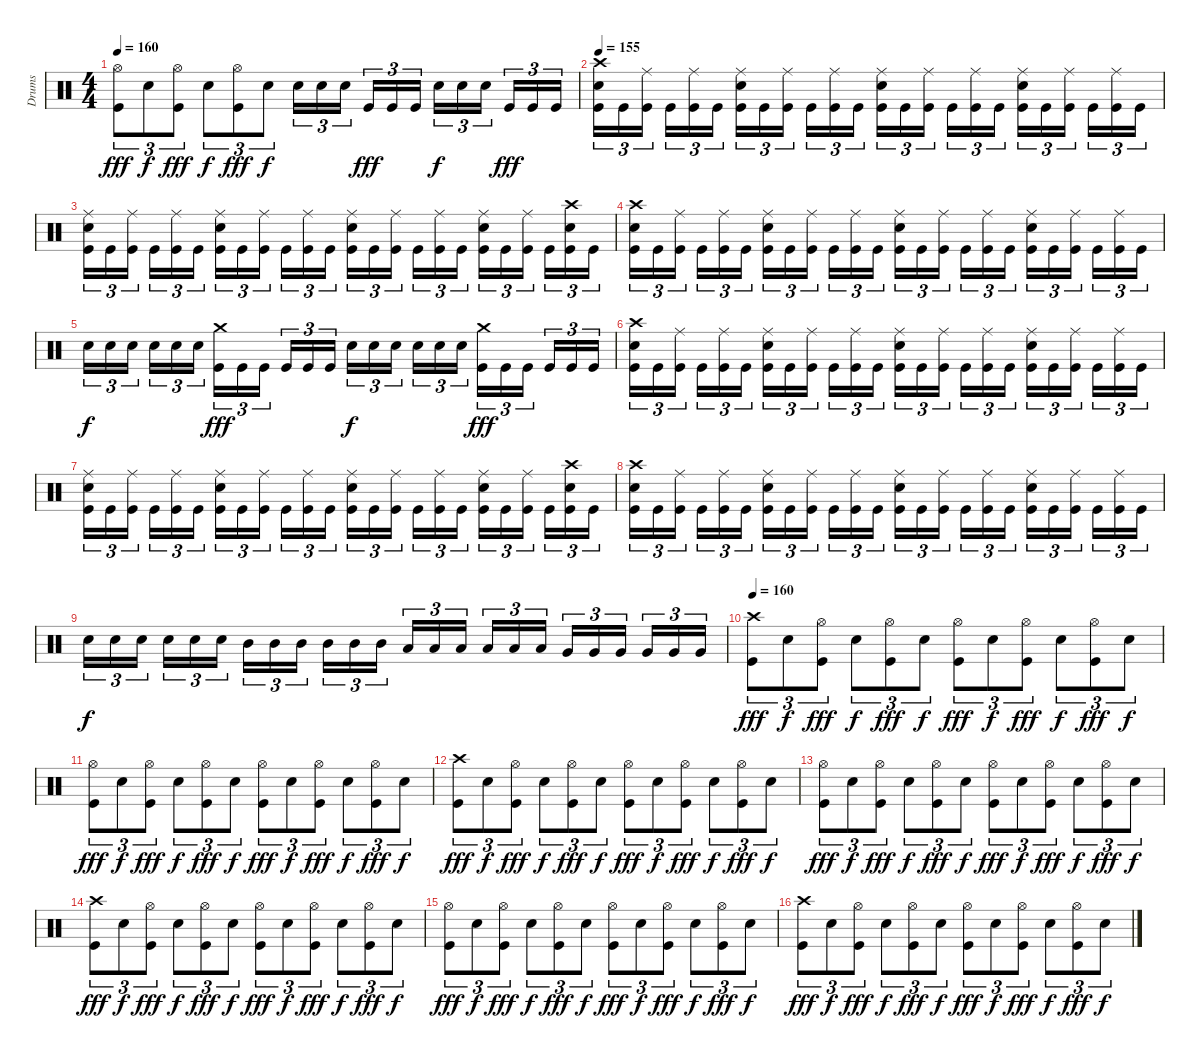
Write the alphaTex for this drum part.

\track ("Drums" "Drums") {instrument percussion}
\staff {score}
\articulation defaults
\ts (4 4)
\tempo 160
\clef neutral
\ks c
("Hi-Hat (open)" "Kick (hit)").8{tu (3 2) dy fff} "Electric Snare (hit)".8{tu (3 2) dy f} ("Hi-Hat (open)" "Kick (hit)").8{tu (3 2) dy fff} "Electric Snare (hit)".8{tu (3 2) dy f} ("Hi-Hat (open)" "Kick (hit)").8{tu (3 2) dy fff} "Electric Snare (hit)".8{tu (3 2) dy f} "Electric Snare (hit)".16{tu (3 2)} "Electric Snare (hit)".16{tu (3 2)} "Electric Snare (hit)".16{tu (3 2)} "Kick (hit)".16{tu (3 2) dy fff} "Kick (hit)".16{tu (3 2)} "Kick (hit)".16{tu (3 2)} "Electric Snare (hit)".16{tu (3 2) dy f} "Electric Snare (hit)".16{tu (3 2)} "Electric Snare (hit)".16{tu (3 2)} "Kick (hit)".16{tu (3 2) dy fff} "Kick (hit)".16{tu (3 2)} "Kick (hit)".16{tu (3 2)} |
\tempo 155
("Crash high (hit)" "Electric Snare (hit)" "Kick (hit)").16{tu (3 2)} "Kick (hit)".16{tu (3 2)} ("Ride (middle)" "Kick (hit)").16{tu (3 2)} "Kick (hit)".16{tu (3 2)} ("Ride (middle)" "Kick (hit)").16{tu (3 2)} "Kick (hit)".16{tu (3 2)} ("Ride (middle)" "Electric Snare (hit)" "Kick (hit)").16{tu (3 2)} "Kick (hit)".16{tu (3 2)} ("Ride (middle)" "Kick (hit)").16{tu (3 2)} "Kick (hit)".16{tu (3 2)} ("Ride (middle)" "Kick (hit)").16{tu (3 2)} "Kick (hit)".16{tu (3 2)} ("Ride (middle)" "Electric Snare (hit)" "Kick (hit)").16{tu (3 2)} "Kick (hit)".16{tu (3 2)} ("Ride (middle)" "Kick (hit)").16{tu (3 2)} "Kick (hit)".16{tu (3 2)} ("Ride (middle)" "Kick (hit)").16{tu (3 2)} "Kick (hit)".16{tu (3 2)} ("Ride (middle)" "Electric Snare (hit)" "Kick (hit)").16{tu (3 2)} "Kick (hit)".16{tu (3 2)} ("Ride (middle)" "Kick (hit)").16{tu (3 2)} "Kick (hit)".16{tu (3 2)} ("Ride (middle)" "Kick (hit)").16{tu (3 2)} "Kick (hit)".16{tu (3 2)} |
("Ride (middle)" "Electric Snare (hit)" "Kick (hit)").16{tu (3 2)} "Kick (hit)".16{tu (3 2)} ("Ride (middle)" "Kick (hit)").16{tu (3 2)} "Kick (hit)".16{tu (3 2)} ("Ride (middle)" "Kick (hit)").16{tu (3 2)} "Kick (hit)".16{tu (3 2)} ("Ride (middle)" "Electric Snare (hit)" "Kick (hit)").16{tu (3 2)} "Kick (hit)".16{tu (3 2)} ("Ride (middle)" "Kick (hit)").16{tu (3 2)} "Kick (hit)".16{tu (3 2)} ("Ride (middle)" "Kick (hit)").16{tu (3 2)} "Kick (hit)".16{tu (3 2)} ("Ride (middle)" "Electric Snare (hit)" "Kick (hit)").16{tu (3 2)} "Kick (hit)".16{tu (3 2)} ("Ride (middle)" "Kick (hit)").16{tu (3 2)} "Kick (hit)".16{tu (3 2)} ("Ride (middle)" "Kick (hit)").16{tu (3 2)} "Kick (hit)".16{tu (3 2)} ("Ride (middle)" "Electric Snare (hit)" "Kick (hit)").16{tu (3 2)} "Kick (hit)".16{tu (3 2)} ("Ride (middle)" "Kick (hit)").16{tu (3 2)} "Kick (hit)".16{tu (3 2)} ("Crash high (hit)" "Electric Snare (hit)" "Kick (hit)").16{tu (3 2)} "Kick (hit)".16{tu (3 2)} |
("Crash high (hit)" "Electric Snare (hit)" "Kick (hit)").16{tu (3 2)} "Kick (hit)".16{tu (3 2)} ("Ride (middle)" "Kick (hit)").16{tu (3 2)} "Kick (hit)".16{tu (3 2)} ("Ride (middle)" "Kick (hit)").16{tu (3 2)} "Kick (hit)".16{tu (3 2)} ("Ride (middle)" "Electric Snare (hit)" "Kick (hit)").16{tu (3 2)} "Kick (hit)".16{tu (3 2)} ("Ride (middle)" "Kick (hit)").16{tu (3 2)} "Kick (hit)".16{tu (3 2)} ("Ride (middle)" "Kick (hit)").16{tu (3 2)} "Kick (hit)".16{tu (3 2)} ("Ride (middle)" "Electric Snare (hit)" "Kick (hit)").16{tu (3 2)} "Kick (hit)".16{tu (3 2)} ("Ride (middle)" "Kick (hit)").16{tu (3 2)} "Kick (hit)".16{tu (3 2)} ("Ride (middle)" "Kick (hit)").16{tu (3 2)} "Kick (hit)".16{tu (3 2)} ("Ride (middle)" "Electric Snare (hit)" "Kick (hit)").16{tu (3 2)} "Kick (hit)".16{tu (3 2)} ("Ride (middle)" "Kick (hit)").16{tu (3 2)} "Kick (hit)".16{tu (3 2)} ("Ride (middle)" "Kick (hit)").16{tu (3 2)} "Kick (hit)".16{tu (3 2)} |
"Electric Snare (hit)".16{tu (3 2) dy f} "Electric Snare (hit)".16{tu (3 2)} "Electric Snare (hit)".16{tu (3 2)} "Electric Snare (hit)".16{tu (3 2)} "Electric Snare (hit)".16{tu (3 2)} "Electric Snare (hit)".16{tu (3 2)} ("Crash medium (hit)" "Kick (hit)").16{tu (3 2) dy fff} "Kick (hit)".16{tu (3 2)} "Kick (hit)".16{tu (3 2)} "Kick (hit)".16{tu (3 2)} "Kick (hit)".16{tu (3 2)} "Kick (hit)".16{tu (3 2)} "Electric Snare (hit)".16{tu (3 2) dy f} "Electric Snare (hit)".16{tu (3 2)} "Electric Snare (hit)".16{tu (3 2)} "Electric Snare (hit)".16{tu (3 2)} "Electric Snare (hit)".16{tu (3 2)} "Electric Snare (hit)".16{tu (3 2)} ("Crash medium (hit)" "Kick (hit)").16{tu (3 2) dy fff} "Kick (hit)".16{tu (3 2)} "Kick (hit)".16{tu (3 2)} "Kick (hit)".16{tu (3 2)} "Kick (hit)".16{tu (3 2)} "Kick (hit)".16{tu (3 2)} |
("Crash high (hit)" "Electric Snare (hit)" "Kick (hit)").16{tu (3 2)} "Kick (hit)".16{tu (3 2)} ("Ride (middle)" "Kick (hit)").16{tu (3 2)} "Kick (hit)".16{tu (3 2)} ("Ride (middle)" "Kick (hit)").16{tu (3 2)} "Kick (hit)".16{tu (3 2)} ("Ride (middle)" "Electric Snare (hit)" "Kick (hit)").16{tu (3 2)} "Kick (hit)".16{tu (3 2)} ("Ride (middle)" "Kick (hit)").16{tu (3 2)} "Kick (hit)".16{tu (3 2)} ("Ride (middle)" "Kick (hit)").16{tu (3 2)} "Kick (hit)".16{tu (3 2)} ("Ride (middle)" "Electric Snare (hit)" "Kick (hit)").16{tu (3 2)} "Kick (hit)".16{tu (3 2)} ("Ride (middle)" "Kick (hit)").16{tu (3 2)} "Kick (hit)".16{tu (3 2)} ("Ride (middle)" "Kick (hit)").16{tu (3 2)} "Kick (hit)".16{tu (3 2)} ("Ride (middle)" "Electric Snare (hit)" "Kick (hit)").16{tu (3 2)} "Kick (hit)".16{tu (3 2)} ("Ride (middle)" "Kick (hit)").16{tu (3 2)} "Kick (hit)".16{tu (3 2)} ("Ride (middle)" "Kick (hit)").16{tu (3 2)} "Kick (hit)".16{tu (3 2)} |
("Ride (middle)" "Electric Snare (hit)" "Kick (hit)").16{tu (3 2)} "Kick (hit)".16{tu (3 2)} ("Ride (middle)" "Kick (hit)").16{tu (3 2)} "Kick (hit)".16{tu (3 2)} ("Ride (middle)" "Kick (hit)").16{tu (3 2)} "Kick (hit)".16{tu (3 2)} ("Ride (middle)" "Electric Snare (hit)" "Kick (hit)").16{tu (3 2)} "Kick (hit)".16{tu (3 2)} ("Ride (middle)" "Kick (hit)").16{tu (3 2)} "Kick (hit)".16{tu (3 2)} ("Ride (middle)" "Kick (hit)").16{tu (3 2)} "Kick (hit)".16{tu (3 2)} ("Ride (middle)" "Electric Snare (hit)" "Kick (hit)").16{tu (3 2)} "Kick (hit)".16{tu (3 2)} ("Ride (middle)" "Kick (hit)").16{tu (3 2)} "Kick (hit)".16{tu (3 2)} ("Ride (middle)" "Kick (hit)").16{tu (3 2)} "Kick (hit)".16{tu (3 2)} ("Ride (middle)" "Electric Snare (hit)" "Kick (hit)").16{tu (3 2)} "Kick (hit)".16{tu (3 2)} ("Ride (middle)" "Kick (hit)").16{tu (3 2)} "Kick (hit)".16{tu (3 2)} ("Crash high (hit)" "Electric Snare (hit)" "Kick (hit)").16{tu (3 2)} "Kick (hit)".16{tu (3 2)} |
("Crash high (hit)" "Electric Snare (hit)" "Kick (hit)").16{tu (3 2)} "Kick (hit)".16{tu (3 2)} ("Ride (middle)" "Kick (hit)").16{tu (3 2)} "Kick (hit)".16{tu (3 2)} ("Ride (middle)" "Kick (hit)").16{tu (3 2)} "Kick (hit)".16{tu (3 2)} ("Ride (middle)" "Electric Snare (hit)" "Kick (hit)").16{tu (3 2)} "Kick (hit)".16{tu (3 2)} ("Ride (middle)" "Kick (hit)").16{tu (3 2)} "Kick (hit)".16{tu (3 2)} ("Ride (middle)" "Kick (hit)").16{tu (3 2)} "Kick (hit)".16{tu (3 2)} ("Ride (middle)" "Electric Snare (hit)" "Kick (hit)").16{tu (3 2)} "Kick (hit)".16{tu (3 2)} ("Ride (middle)" "Kick (hit)").16{tu (3 2)} "Kick (hit)".16{tu (3 2)} ("Ride (middle)" "Kick (hit)").16{tu (3 2)} "Kick (hit)".16{tu (3 2)} ("Ride (middle)" "Electric Snare (hit)" "Kick (hit)").16{tu (3 2)} "Kick (hit)".16{tu (3 2)} ("Ride (middle)" "Kick (hit)").16{tu (3 2)} "Kick (hit)".16{tu (3 2)} ("Ride (middle)" "Kick (hit)").16{tu (3 2)} "Kick (hit)".16{tu (3 2)} |
"Electric Snare (hit)".16{tu (3 2) dy f} "Electric Snare (hit)".16{tu (3 2)} "Electric Snare (hit)".16{tu (3 2)} "Electric Snare (hit)".16{tu (3 2)} "Electric Snare (hit)".16{tu (3 2)} "Electric Snare (hit)".16{tu (3 2)} "Mid Tom (hit)".16{tu (3 2)} "Mid Tom (hit)".16{tu (3 2)} "Mid Tom (hit)".16{tu (3 2)} "Mid Tom (hit)".16{tu (3 2)} "Mid Tom (hit)".16{tu (3 2)} "Mid Tom (hit)".16{tu (3 2)} "Low Tom (hit)".16{tu (3 2)} "Low Tom (hit)".16{tu (3 2)} "Low Tom (hit)".16{tu (3 2)} "Low Tom (hit)".16{tu (3 2)} "Low Tom (hit)".16{tu (3 2)} "Low Tom (hit)".16{tu (3 2)} "Very Low Tom (hit)".16{tu (3 2)} "Very Low Tom (hit)".16{tu (3 2)} "Very Low Tom (hit)".16{tu (3 2)} "Very Low Tom (hit)".16{tu (3 2)} "Very Low Tom (hit)".16{tu (3 2)} "Very Low Tom (hit)".16{tu (3 2)} |
\tempo 160
("Crash high (hit)" "Kick (hit)").8{tu (3 2) dy fff} "Electric Snare (hit)".8{tu (3 2) dy f} ("Hi-Hat (open)" "Kick (hit)").8{tu (3 2) dy fff} "Electric Snare (hit)".8{tu (3 2) dy f} ("Hi-Hat (open)" "Kick (hit)").8{tu (3 2) dy fff} "Electric Snare (hit)".8{tu (3 2) dy f} ("Hi-Hat (open)" "Kick (hit)").8{tu (3 2) dy fff} "Electric Snare (hit)".8{tu (3 2) dy f} ("Hi-Hat (open)" "Kick (hit)").8{tu (3 2) dy fff} "Electric Snare (hit)".8{tu (3 2) dy f} ("Hi-Hat (open)" "Kick (hit)").8{tu (3 2) dy fff} "Electric Snare (hit)".8{tu (3 2) dy f} |
("Hi-Hat (open)" "Kick (hit)").8{tu (3 2) dy fff} "Electric Snare (hit)".8{tu (3 2) dy f} ("Hi-Hat (open)" "Kick (hit)").8{tu (3 2) dy fff} "Electric Snare (hit)".8{tu (3 2) dy f} ("Hi-Hat (open)" "Kick (hit)").8{tu (3 2) dy fff} "Electric Snare (hit)".8{tu (3 2) dy f} ("Hi-Hat (open)" "Kick (hit)").8{tu (3 2) dy fff} "Electric Snare (hit)".8{tu (3 2) dy f} ("Hi-Hat (open)" "Kick (hit)").8{tu (3 2) dy fff} "Electric Snare (hit)".8{tu (3 2) dy f} ("Hi-Hat (open)" "Kick (hit)").8{tu (3 2) dy fff} "Electric Snare (hit)".8{tu (3 2) dy f} |
("Crash high (hit)" "Kick (hit)").8{tu (3 2) dy fff} "Electric Snare (hit)".8{tu (3 2) dy f} ("Hi-Hat (open)" "Kick (hit)").8{tu (3 2) dy fff} "Electric Snare (hit)".8{tu (3 2) dy f} ("Hi-Hat (open)" "Kick (hit)").8{tu (3 2) dy fff} "Electric Snare (hit)".8{tu (3 2) dy f} ("Hi-Hat (open)" "Kick (hit)").8{tu (3 2) dy fff} "Electric Snare (hit)".8{tu (3 2) dy f} ("Hi-Hat (open)" "Kick (hit)").8{tu (3 2) dy fff} "Electric Snare (hit)".8{tu (3 2) dy f} ("Hi-Hat (open)" "Kick (hit)").8{tu (3 2) dy fff} "Electric Snare (hit)".8{tu (3 2) dy f} |
("Hi-Hat (open)" "Kick (hit)").8{tu (3 2) dy fff} "Electric Snare (hit)".8{tu (3 2) dy f} ("Hi-Hat (open)" "Kick (hit)").8{tu (3 2) dy fff} "Electric Snare (hit)".8{tu (3 2) dy f} ("Hi-Hat (open)" "Kick (hit)").8{tu (3 2) dy fff} "Electric Snare (hit)".8{tu (3 2) dy f} ("Hi-Hat (open)" "Kick (hit)").8{tu (3 2) dy fff} "Electric Snare (hit)".8{tu (3 2) dy f} ("Hi-Hat (open)" "Kick (hit)").8{tu (3 2) dy fff} "Electric Snare (hit)".8{tu (3 2) dy f} ("Hi-Hat (open)" "Kick (hit)").8{tu (3 2) dy fff} "Electric Snare (hit)".8{tu (3 2) dy f} |
("Crash high (hit)" "Kick (hit)").8{tu (3 2) dy fff} "Electric Snare (hit)".8{tu (3 2) dy f} ("Hi-Hat (open)" "Kick (hit)").8{tu (3 2) dy fff} "Electric Snare (hit)".8{tu (3 2) dy f} ("Hi-Hat (open)" "Kick (hit)").8{tu (3 2) dy fff} "Electric Snare (hit)".8{tu (3 2) dy f} ("Hi-Hat (open)" "Kick (hit)").8{tu (3 2) dy fff} "Electric Snare (hit)".8{tu (3 2) dy f} ("Hi-Hat (open)" "Kick (hit)").8{tu (3 2) dy fff} "Electric Snare (hit)".8{tu (3 2) dy f} ("Hi-Hat (open)" "Kick (hit)").8{tu (3 2) dy fff} "Electric Snare (hit)".8{tu (3 2) dy f} |
("Hi-Hat (open)" "Kick (hit)").8{tu (3 2) dy fff} "Electric Snare (hit)".8{tu (3 2) dy f} ("Hi-Hat (open)" "Kick (hit)").8{tu (3 2) dy fff} "Electric Snare (hit)".8{tu (3 2) dy f} ("Hi-Hat (open)" "Kick (hit)").8{tu (3 2) dy fff} "Electric Snare (hit)".8{tu (3 2) dy f} ("Hi-Hat (open)" "Kick (hit)").8{tu (3 2) dy fff} "Electric Snare (hit)".8{tu (3 2) dy f} ("Hi-Hat (open)" "Kick (hit)").8{tu (3 2) dy fff} "Electric Snare (hit)".8{tu (3 2) dy f} ("Hi-Hat (open)" "Kick (hit)").8{tu (3 2) dy fff} "Electric Snare (hit)".8{tu (3 2) dy f} |
("Crash high (hit)" "Kick (hit)").8{tu (3 2) dy fff} "Electric Snare (hit)".8{tu (3 2) dy f} ("Hi-Hat (open)" "Kick (hit)").8{tu (3 2) dy fff} "Electric Snare (hit)".8{tu (3 2) dy f} ("Hi-Hat (open)" "Kick (hit)").8{tu (3 2) dy fff} "Electric Snare (hit)".8{tu (3 2) dy f} ("Hi-Hat (open)" "Kick (hit)").8{tu (3 2) dy fff} "Electric Snare (hit)".8{tu (3 2) dy f} ("Hi-Hat (open)" "Kick (hit)").8{tu (3 2) dy fff} "Electric Snare (hit)".8{tu (3 2) dy f} ("Hi-Hat (open)" "Kick (hit)").8{tu (3 2) dy fff} "Electric Snare (hit)".8{tu (3 2) dy f}
